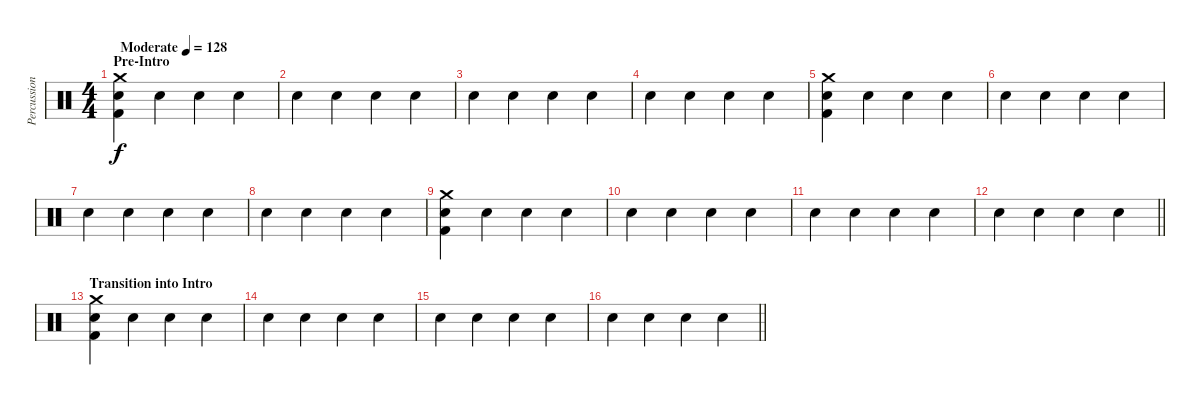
\track ("Percussion" "Percussion") {instrument percussion}
\staff {score}
\articulation defaults
\ts (4 4)
\section ("" "Pre-Intro")
\tempo (128 "Moderate")
\clef neutral
\ks c
("Kick (hit) 2" "Snare (hit) 2" "Crash medium (hit)").4{dy f} "Hand Clap (hit)".4 "Hand Clap (hit)".4 "Hand Clap (hit)".4 |
"Hand Clap (hit)".4 "Hand Clap (hit)".4 "Hand Clap (hit)".4 "Hand Clap (hit)".4 |
"Hand Clap (hit)".4 "Hand Clap (hit)".4 "Hand Clap (hit)".4 "Hand Clap (hit)".4 |
"Hand Clap (hit)".4 "Hand Clap (hit)".4 "Hand Clap (hit)".4 "Hand Clap (hit)".4 |
("Kick (hit) 2" "Snare (hit) 2" "Crash medium (hit)").4 "Hand Clap (hit)".4 "Hand Clap (hit)".4 "Hand Clap (hit)".4 |
"Hand Clap (hit)".4 "Hand Clap (hit)".4 "Hand Clap (hit)".4 "Hand Clap (hit)".4 |
"Hand Clap (hit)".4 "Hand Clap (hit)".4 "Hand Clap (hit)".4 "Hand Clap (hit)".4 |
"Hand Clap (hit)".4 "Hand Clap (hit)".4 "Hand Clap (hit)".4 "Hand Clap (hit)".4 |
("Kick (hit) 2" "Snare (hit) 2" "Crash medium (hit)").4 "Hand Clap (hit)".4 "Hand Clap (hit)".4 "Hand Clap (hit)".4 |
"Hand Clap (hit)".4 "Hand Clap (hit)".4 "Hand Clap (hit)".4 "Hand Clap (hit)".4 |
"Hand Clap (hit)".4 "Hand Clap (hit)".4 "Hand Clap (hit)".4 "Hand Clap (hit)".4 |
\barLineRight lightlight "Hand Clap (hit)".4 "Hand Clap (hit)".4 "Hand Clap (hit)".4 "Hand Clap (hit)".4
|
\section ("" "Transition into Intro")
("Kick (hit) 2" "Snare (hit) 2" "Crash medium (hit)").4 "Hand Clap (hit)".4 "Hand Clap (hit)".4 "Hand Clap (hit)".4 |
"Hand Clap (hit)".4 "Hand Clap (hit)".4 "Hand Clap (hit)".4 "Hand Clap (hit)".4 |
"Hand Clap (hit)".4 "Hand Clap (hit)".4 "Hand Clap (hit)".4 "Hand Clap (hit)".4 |
\barLineRight lightlight "Hand Clap (hit)".4 "Hand Clap (hit)".4 "Hand Clap (hit)".4 "Hand Clap (hit)".4
